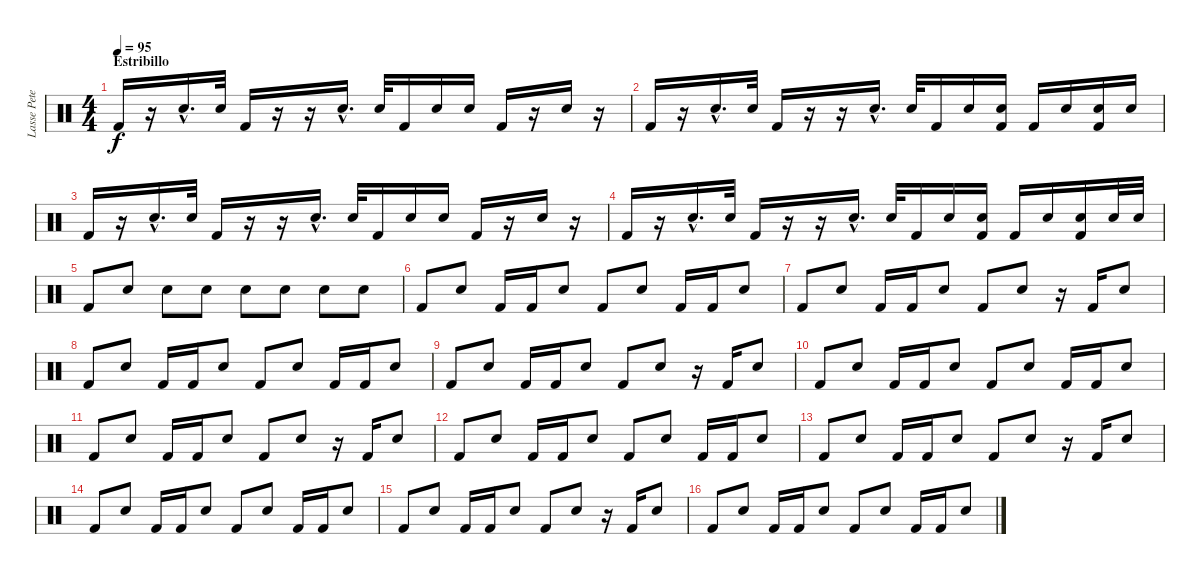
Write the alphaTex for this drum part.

\track ("Lasse Peterson" "Lasse Pete") {instrument percussion}
\staff {score}
\articulation defaults
\ts (4 4)
\section ("" "Estribillo")
\tempo 95
\clef neutral
\ks c "Kick (hit) 2".16{dy f}
r.16 "Electric Snare (hit)"{hac}.16{d} "Electric Snare (hit)".32 "Kick (hit) 2".16 r.16 r.16 "Electric Snare (hit)"{hac}.16{d} "Electric Snare (hit)".32 "Kick (hit) 2".16 "Electric Snare (hit)".16 "Electric Snare (hit)".16 "Kick (hit) 2".16 r.16 "Electric Snare (hit)".16 r.16 |
"Kick (hit) 2".16 r.16 "Electric Snare (hit)"{hac}.16{d} "Electric Snare (hit)".32 "Kick (hit) 2".16 r.16 r.16 "Electric Snare (hit)"{hac}.16{d} "Electric Snare (hit)".32 "Kick (hit) 2".16 "Electric Snare (hit)".16 ("Electric Snare (hit)" "Kick (hit) 2").16 "Kick (hit) 2".16 "Electric Snare (hit)".16 ("Electric Snare (hit)" "Kick (hit) 2").16 "Electric Snare (hit)".16 |
"Kick (hit) 2".16 r.16 "Electric Snare (hit)"{hac}.16{d} "Electric Snare (hit)".32 "Kick (hit) 2".16 r.16 r.16 "Electric Snare (hit)"{hac}.16{d} "Electric Snare (hit)".32 "Kick (hit) 2".16 "Electric Snare (hit)".16 "Electric Snare (hit)".16 "Kick (hit) 2".16 r.16 "Electric Snare (hit)".16 r.16 |
"Kick (hit) 2".16 r.16 "Electric Snare (hit)"{hac}.16{d} "Electric Snare (hit)".32 "Kick (hit) 2".16 r.16 r.16 "Electric Snare (hit)"{hac}.16{d} "Electric Snare (hit)".32 "Kick (hit) 2".16 "Electric Snare (hit)".16 ("Electric Snare (hit)" "Kick (hit) 2").16 "Kick (hit) 2".16 "Electric Snare (hit)".16 ("Electric Snare (hit)" "Kick (hit) 2").16 "Electric Snare (hit)".32 "Electric Snare (hit)".32 |
"Kick (hit) 2".8 "Electric Snare (hit)".8 "Electric Snare (hit)".8 "Electric Snare (hit)".8 "Electric Snare (hit)".8 "Electric Snare (hit)".8 "Electric Snare (hit)".8 "Electric Snare (hit)".8 |
"Kick (hit) 2".8 "Electric Snare (hit)".8 "Kick (hit) 2".16 "Kick (hit) 2".16 "Electric Snare (hit)".8 "Kick (hit) 2".8 "Electric Snare (hit)".8 "Kick (hit) 2".16 "Kick (hit) 2".16 "Electric Snare (hit)".8 |
"Kick (hit) 2".8 "Electric Snare (hit)".8 "Kick (hit) 2".16 "Kick (hit) 2".16 "Electric Snare (hit)".8 "Kick (hit) 2".8 "Electric Snare (hit)".8 r.16 "Kick (hit) 2".16 "Electric Snare (hit)".8 |
"Kick (hit) 2".8 "Electric Snare (hit)".8 "Kick (hit) 2".16 "Kick (hit) 2".16 "Electric Snare (hit)".8 "Kick (hit) 2".8 "Electric Snare (hit)".8 "Kick (hit) 2".16 "Kick (hit) 2".16 "Electric Snare (hit)".8 |
"Kick (hit) 2".8 "Electric Snare (hit)".8 "Kick (hit) 2".16 "Kick (hit) 2".16 "Electric Snare (hit)".8 "Kick (hit) 2".8 "Electric Snare (hit)".8 r.16 "Kick (hit) 2".16 "Electric Snare (hit)".8 |
"Kick (hit) 2".8 "Electric Snare (hit)".8 "Kick (hit) 2".16 "Kick (hit) 2".16 "Electric Snare (hit)".8 "Kick (hit) 2".8 "Electric Snare (hit)".8 "Kick (hit) 2".16 "Kick (hit) 2".16 "Electric Snare (hit)".8 |
"Kick (hit) 2".8 "Electric Snare (hit)".8 "Kick (hit) 2".16 "Kick (hit) 2".16 "Electric Snare (hit)".8 "Kick (hit) 2".8 "Electric Snare (hit)".8 r.16 "Kick (hit) 2".16 "Electric Snare (hit)".8 |
"Kick (hit) 2".8 "Electric Snare (hit)".8 "Kick (hit) 2".16 "Kick (hit) 2".16 "Electric Snare (hit)".8 "Kick (hit) 2".8 "Electric Snare (hit)".8 "Kick (hit) 2".16 "Kick (hit) 2".16 "Electric Snare (hit)".8 |
"Kick (hit) 2".8 "Electric Snare (hit)".8 "Kick (hit) 2".16 "Kick (hit) 2".16 "Electric Snare (hit)".8 "Kick (hit) 2".8 "Electric Snare (hit)".8 r.16 "Kick (hit) 2".16 "Electric Snare (hit)".8 |
"Kick (hit) 2".8 "Electric Snare (hit)".8 "Kick (hit) 2".16 "Kick (hit) 2".16 "Electric Snare (hit)".8 "Kick (hit) 2".8 "Electric Snare (hit)".8 "Kick (hit) 2".16 "Kick (hit) 2".16 "Electric Snare (hit)".8 |
"Kick (hit) 2".8 "Electric Snare (hit)".8 "Kick (hit) 2".16 "Kick (hit) 2".16 "Electric Snare (hit)".8 "Kick (hit) 2".8 "Electric Snare (hit)".8 r.16 "Kick (hit) 2".16 "Electric Snare (hit)".8 |
"Kick (hit) 2".8 "Electric Snare (hit)".8 "Kick (hit) 2".16 "Kick (hit) 2".16 "Electric Snare (hit)".8 "Kick (hit) 2".8 "Electric Snare (hit)".8 "Kick (hit) 2".16 "Kick (hit) 2".16 "Electric Snare (hit)".8
